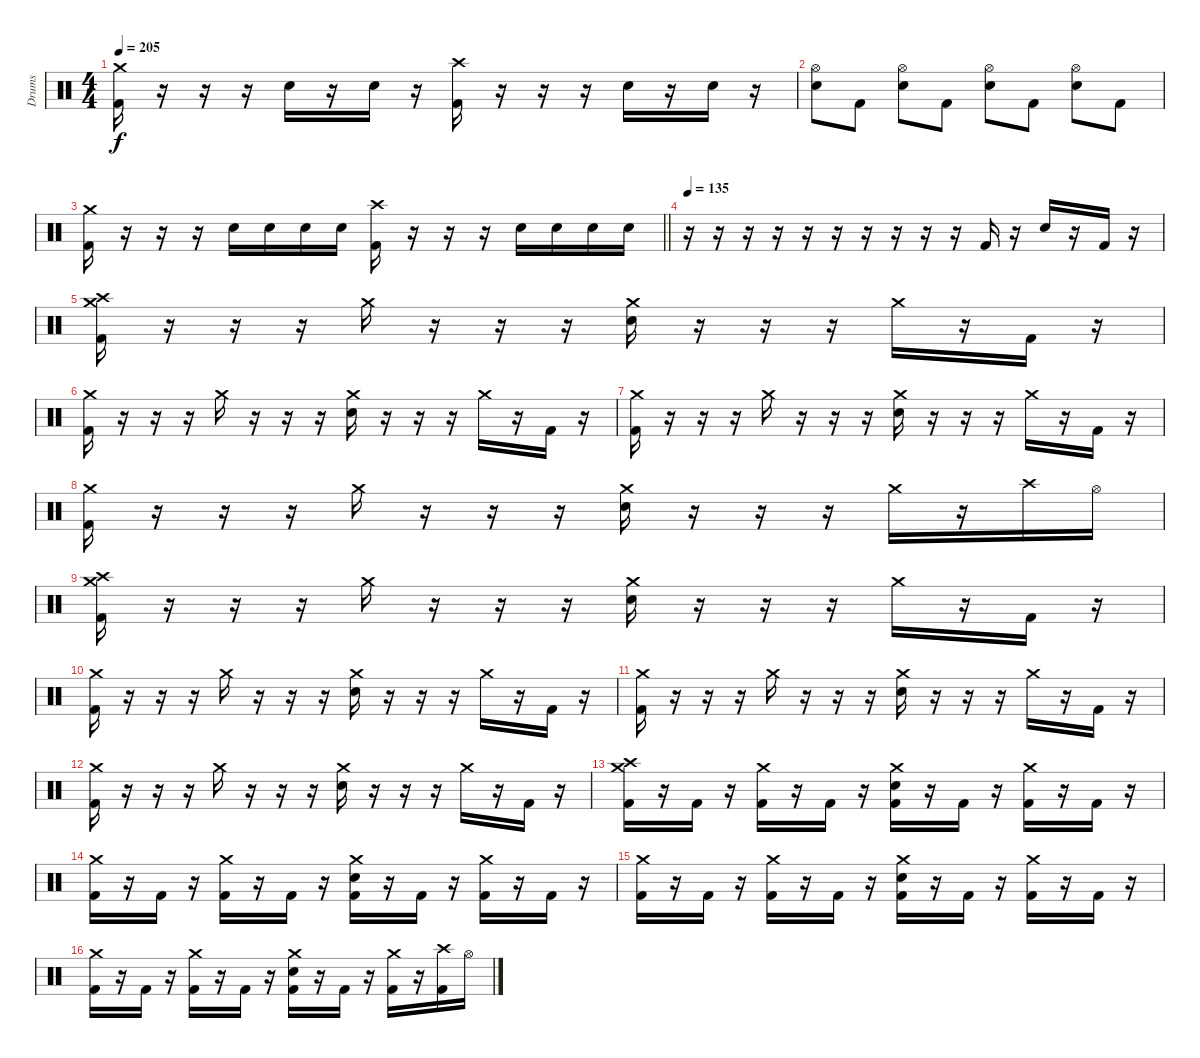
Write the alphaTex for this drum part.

\track ("Drums" "Drums") {instrument percussion}
\staff {score}
\articulation defaults
\ts (4 4)
\tempo 205
\clef neutral
\ks c
("Crash medium (hit)" "Kick (hit) 2").16{dy f} r.16 r.16 r.16 "Electric Snare (hit)".16 r.16 "Electric Snare (hit)".16 r.16 ("Crash high (hit)" "Kick (hit) 2").16 r.16 r.16 r.16 "Electric Snare (hit)".16 r.16 "Electric Snare (hit)".16 r.16 |
("Hi-Hat (open)" "Electric Snare (hit)").8 "Kick (hit) 2".8 ("Hi-Hat (open)" "Electric Snare (hit)").8 "Kick (hit) 2".8 ("Hi-Hat (open)" "Electric Snare (hit)").8 "Kick (hit) 2".8 ("Hi-Hat (open)" "Electric Snare (hit)").8 "Kick (hit) 2".8 |
\barLineRight lightlight
("Crash medium (hit)" "Kick (hit) 2").16 r.16 r.16 r.16 "Electric Snare (hit)".16 "Electric Snare (hit)".16 "Electric Snare (hit)".16 "Electric Snare (hit)".16 ("Crash high (hit)" "Kick (hit) 2").16 r.16 r.16 r.16 "Electric Snare (hit)".16 "Electric Snare (hit)".16 "Electric Snare (hit)".16 "Electric Snare (hit)".16 |
\tempo 135
r.16 r.16 r.16 r.16 r.16 r.16 r.16 r.16 r.16 r.16 "Kick (hit) 2".16 r.16 "Electric Snare (hit)".16 r.16 "Kick (hit) 2".16{beam merge} r.16 |
("Crash medium (hit)" "Crash high (hit)" "Kick (hit) 2").16 r.16 r.16 r.16 "Crash medium (hit)".16 r.16 r.16 r.16 ("Crash medium (hit)" "Electric Snare (hit)").16 r.16 r.16 r.16 "Crash medium (hit)".16 r.16 "Kick (hit) 2".16 r.16 |
("Crash medium (hit)" "Kick (hit) 2").16 r.16 r.16 r.16 "Crash medium (hit)".16 r.16 r.16 r.16 ("Crash medium (hit)" "Electric Snare (hit)").16 r.16 r.16 r.16 "Crash medium (hit)".16 r.16 "Kick (hit) 2".16 r.16 |
("Crash medium (hit)" "Kick (hit) 2").16 r.16 r.16 r.16 "Crash medium (hit)".16 r.16 r.16 r.16 ("Crash medium (hit)" "Electric Snare (hit)").16 r.16 r.16 r.16 "Crash medium (hit)".16 r.16 "Kick (hit) 2".16 r.16 |
("Crash medium (hit)" "Kick (hit) 2").16 r.16 r.16 r.16 "Crash medium (hit)".16 r.16 r.16 r.16 ("Crash medium (hit)" "Electric Snare (hit)").16 r.16 r.16 r.16 "Crash medium (hit)".16 r.16 "Crash high (hit)".16 "Hi-Hat (open)".16 |
("Crash medium (hit)" "Crash high (hit)" "Kick (hit) 2").16 r.16 r.16 r.16 "Crash medium (hit)".16 r.16 r.16 r.16 ("Crash medium (hit)" "Electric Snare (hit)").16 r.16 r.16 r.16 "Crash medium (hit)".16 r.16 "Kick (hit) 2".16 r.16 |
("Crash medium (hit)" "Kick (hit) 2").16 r.16 r.16 r.16 "Crash medium (hit)".16 r.16 r.16 r.16 ("Crash medium (hit)" "Electric Snare (hit)").16 r.16 r.16 r.16 "Crash medium (hit)".16 r.16 "Kick (hit) 2".16 r.16 |
("Crash medium (hit)" "Kick (hit) 2").16 r.16 r.16 r.16 "Crash medium (hit)".16 r.16 r.16 r.16 ("Crash medium (hit)" "Electric Snare (hit)").16 r.16 r.16 r.16 "Crash medium (hit)".16 r.16 "Kick (hit) 2".16 r.16 |
("Crash medium (hit)" "Kick (hit) 2").16 r.16 r.16 r.16 "Crash medium (hit)".16 r.16 r.16 r.16 ("Crash medium (hit)" "Electric Snare (hit)").16 r.16 r.16 r.16 "Crash medium (hit)".16 r.16 "Kick (hit) 2".16 r.16 |
("Crash medium (hit)" "Crash high (hit)" "Kick (hit) 2").16 r.16 "Kick (hit) 2".16 r.16 ("Crash medium (hit)" "Kick (hit) 2").16 r.16 "Kick (hit) 2".16 r.16 ("Crash medium (hit)" "Electric Snare (hit)" "Kick (hit) 2").16 r.16 "Kick (hit) 2".16 r.16 ("Crash medium (hit)" "Kick (hit) 2").16 r.16 "Kick (hit) 2".16 r.16 |
("Crash medium (hit)" "Kick (hit) 2").16 r.16 "Kick (hit) 2".16 r.16 ("Crash medium (hit)" "Kick (hit) 2").16 r.16 "Kick (hit) 2".16 r.16 ("Crash medium (hit)" "Electric Snare (hit)" "Kick (hit) 2").16 r.16 "Kick (hit) 2".16 r.16 ("Crash medium (hit)" "Kick (hit) 2").16 r.16 "Kick (hit) 2".16 r.16 |
("Crash medium (hit)" "Kick (hit) 2").16 r.16 "Kick (hit) 2".16 r.16 ("Crash medium (hit)" "Kick (hit) 2").16 r.16 "Kick (hit) 2".16 r.16 ("Crash medium (hit)" "Electric Snare (hit)" "Kick (hit) 2").16 r.16 "Kick (hit) 2".16 r.16 ("Crash medium (hit)" "Kick (hit) 2").16 r.16 "Kick (hit) 2".16 r.16 |
("Crash medium (hit)" "Kick (hit) 2").16 r.16 "Kick (hit) 2".16 r.16 ("Crash medium (hit)" "Kick (hit) 2").16 r.16 "Kick (hit) 2".16 r.16 ("Crash medium (hit)" "Electric Snare (hit)" "Kick (hit) 2").16 r.16 "Kick (hit) 2".16 r.16 ("Crash medium (hit)" "Kick (hit) 2").16 r.16 ("Crash high (hit)" "Kick (hit) 2").16 "Hi-Hat (open)".16
